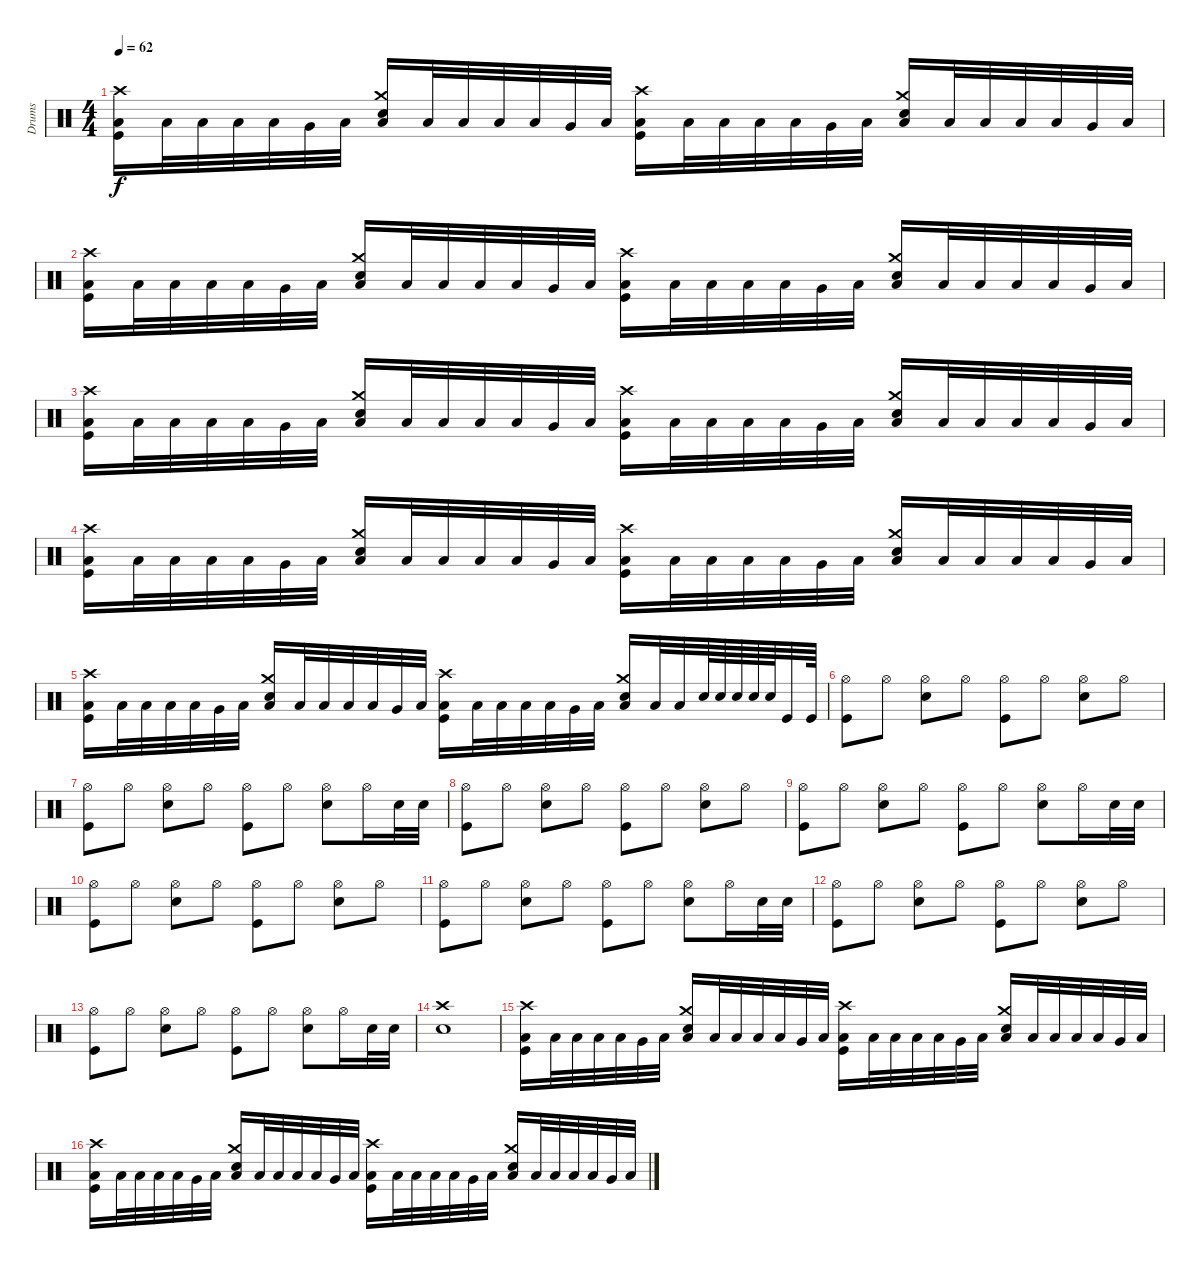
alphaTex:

\track ("Drums" "Drums") {instrument percussion}
\staff {score}
\articulation defaults
\ts (4 4)
\tempo 62
\clef neutral
\ks c
("Crash high (hit)" "Low Floor Tom (hit)" "Kick (hit)").16{dy f} "Low Floor Tom (hit)".32 "Low Floor Tom (hit)".32 "Low Tom (hit)".32 "Low Tom (hit)".32 "Very Low Tom (hit)".32 "Low Floor Tom (hit)".32 ("Crash medium (hit)" "Low Floor Tom (hit)" "Snare (hit) 2").16 "Low Floor Tom (hit)".32 "Low Floor Tom (hit)".32 "Low Tom (hit)".32 "Low Tom (hit)".32 "Very Low Tom (hit)".32 "Low Floor Tom (hit)".32 ("Crash high (hit)" "Low Floor Tom (hit)" "Kick (hit)").16 "Low Floor Tom (hit)".32 "Low Floor Tom (hit)".32 "Low Tom (hit)".32 "Low Tom (hit)".32 "Very Low Tom (hit)".32 "Low Floor Tom (hit)".32 ("Crash medium (hit)" "Low Floor Tom (hit)" "Snare (hit) 2").16 "Low Floor Tom (hit)".32 "Low Floor Tom (hit)".32 "Low Tom (hit)".32 "Low Tom (hit)".32 "Very Low Tom (hit)".32 "Low Floor Tom (hit)".32 |
("Crash high (hit)" "Low Floor Tom (hit)" "Kick (hit)").16 "Low Floor Tom (hit)".32 "Low Floor Tom (hit)".32 "Low Tom (hit)".32 "Low Tom (hit)".32 "Very Low Tom (hit)".32 "Low Floor Tom (hit)".32 ("Crash medium (hit)" "Low Floor Tom (hit)" "Snare (hit) 2").16 "Low Floor Tom (hit)".32 "Low Floor Tom (hit)".32 "Low Tom (hit)".32 "Low Tom (hit)".32 "Very Low Tom (hit)".32 "Low Floor Tom (hit)".32 ("Crash high (hit)" "Low Floor Tom (hit)" "Kick (hit)").16 "Low Floor Tom (hit)".32 "Low Floor Tom (hit)".32 "Low Tom (hit)".32 "Low Tom (hit)".32 "Very Low Tom (hit)".32 "Low Floor Tom (hit)".32 ("Crash medium (hit)" "Low Floor Tom (hit)" "Snare (hit) 2").16 "Low Floor Tom (hit)".32 "Low Floor Tom (hit)".32 "Low Tom (hit)".32 "Low Tom (hit)".32 "Very Low Tom (hit)".32 "Low Floor Tom (hit)".32 |
("Crash high (hit)" "Low Floor Tom (hit)" "Kick (hit)").16 "Low Floor Tom (hit)".32 "Low Floor Tom (hit)".32 "Low Tom (hit)".32 "Low Tom (hit)".32 "Very Low Tom (hit)".32 "Low Floor Tom (hit)".32 ("Crash medium (hit)" "Low Floor Tom (hit)" "Snare (hit) 2").16 "Low Floor Tom (hit)".32 "Low Floor Tom (hit)".32 "Low Tom (hit)".32 "Low Tom (hit)".32 "Very Low Tom (hit)".32 "Low Floor Tom (hit)".32 ("Crash high (hit)" "Low Floor Tom (hit)" "Kick (hit)").16 "Low Floor Tom (hit)".32 "Low Floor Tom (hit)".32 "Low Tom (hit)".32 "Low Tom (hit)".32 "Very Low Tom (hit)".32 "Low Floor Tom (hit)".32 ("Crash medium (hit)" "Low Floor Tom (hit)" "Snare (hit) 2").16 "Low Floor Tom (hit)".32 "Low Floor Tom (hit)".32 "Low Tom (hit)".32 "Low Tom (hit)".32 "Very Low Tom (hit)".32 "Low Floor Tom (hit)".32 |
("Crash high (hit)" "Low Floor Tom (hit)" "Kick (hit)").16 "Low Floor Tom (hit)".32 "Low Floor Tom (hit)".32 "Low Tom (hit)".32 "Low Tom (hit)".32 "Very Low Tom (hit)".32 "Low Floor Tom (hit)".32 ("Crash medium (hit)" "Low Floor Tom (hit)" "Snare (hit) 2").16 "Low Floor Tom (hit)".32 "Low Floor Tom (hit)".32 "Low Tom (hit)".32 "Low Tom (hit)".32 "Very Low Tom (hit)".32 "Low Floor Tom (hit)".32 ("Crash high (hit)" "Low Floor Tom (hit)" "Kick (hit)").16 "Low Floor Tom (hit)".32 "Low Floor Tom (hit)".32 "Low Tom (hit)".32 "Low Tom (hit)".32 "Very Low Tom (hit)".32 "Low Floor Tom (hit)".32 ("Crash medium (hit)" "Low Floor Tom (hit)" "Snare (hit) 2").16 "Low Floor Tom (hit)".32 "Low Floor Tom (hit)".32 "Low Tom (hit)".32 "Low Tom (hit)".32 "Very Low Tom (hit)".32 "Low Floor Tom (hit)".32 |
("Crash high (hit)" "Low Floor Tom (hit)" "Kick (hit)").16 "Low Floor Tom (hit)".32 "Low Floor Tom (hit)".32 "Low Tom (hit)".32 "Low Tom (hit)".32 "Very Low Tom (hit)".32 "Low Floor Tom (hit)".32 ("Crash medium (hit)" "Low Floor Tom (hit)" "Snare (hit) 2").16 "Low Floor Tom (hit)".32 "Low Floor Tom (hit)".32 "Low Tom (hit)".32 "Low Tom (hit)".32 "Very Low Tom (hit)".32 "Low Floor Tom (hit)".32 ("Crash high (hit)" "Low Floor Tom (hit)" "Kick (hit)").16 "Low Floor Tom (hit)".32 "Low Floor Tom (hit)".32 "Low Tom (hit)".32 "Low Tom (hit)".32 "Very Low Tom (hit)".32 "Low Floor Tom (hit)".32 ("Crash medium (hit)" "Low Floor Tom (hit)" "Snare (hit) 2").16 "Low Floor Tom (hit)".32 "Low Tom (hit)".32 "Snare (hit) 2".64 "Snare (hit) 2".64 "Snare (hit) 2".64 "Snare (hit) 2".64 "Snare (hit) 2".64 "Kick (hit)".32 "Kick (hit)".64 |
("Hi-Hat (open)" "Kick (hit)").8 "Hi-Hat (open)".8 ("Hi-Hat (open)" "Snare (hit) 2").8 "Hi-Hat (open)".8 ("Hi-Hat (open)" "Kick (hit)").8 "Hi-Hat (open)".8 ("Hi-Hat (open)" "Snare (hit) 2").8 "Hi-Hat (open)".8 |
("Hi-Hat (open)" "Kick (hit)").8 "Hi-Hat (open)".8 ("Hi-Hat (open)" "Snare (hit) 2").8 "Hi-Hat (open)".8 ("Hi-Hat (open)" "Kick (hit)").8 "Hi-Hat (open)".8 ("Hi-Hat (open)" "Snare (hit) 2").8 "Hi-Hat (open)".16 "Snare (hit) 2".32 "Snare (hit) 2".32 |
("Hi-Hat (open)" "Kick (hit)").8 "Hi-Hat (open)".8 ("Hi-Hat (open)" "Snare (hit) 2").8 "Hi-Hat (open)".8 ("Hi-Hat (open)" "Kick (hit)").8 "Hi-Hat (open)".8 ("Hi-Hat (open)" "Snare (hit) 2").8 "Hi-Hat (open)".8 |
("Hi-Hat (open)" "Kick (hit)").8 "Hi-Hat (open)".8 ("Hi-Hat (open)" "Snare (hit) 2").8 "Hi-Hat (open)".8 ("Hi-Hat (open)" "Kick (hit)").8 "Hi-Hat (open)".8 ("Hi-Hat (open)" "Snare (hit) 2").8 "Hi-Hat (open)".16 "Snare (hit) 2".32 "Snare (hit) 2".32 |
("Hi-Hat (open)" "Kick (hit)").8 "Hi-Hat (open)".8 ("Hi-Hat (open)" "Snare (hit) 2").8 "Hi-Hat (open)".8 ("Hi-Hat (open)" "Kick (hit)").8 "Hi-Hat (open)".8 ("Hi-Hat (open)" "Snare (hit) 2").8 "Hi-Hat (open)".8 |
("Hi-Hat (open)" "Kick (hit)").8 "Hi-Hat (open)".8 ("Hi-Hat (open)" "Snare (hit) 2").8 "Hi-Hat (open)".8 ("Hi-Hat (open)" "Kick (hit)").8 "Hi-Hat (open)".8 ("Hi-Hat (open)" "Snare (hit) 2").8 "Hi-Hat (open)".16 "Snare (hit) 2".32 "Snare (hit) 2".32 |
("Hi-Hat (open)" "Kick (hit)").8 "Hi-Hat (open)".8 ("Hi-Hat (open)" "Snare (hit) 2").8 "Hi-Hat (open)".8 ("Hi-Hat (open)" "Kick (hit)").8 "Hi-Hat (open)".8 ("Hi-Hat (open)" "Snare (hit) 2").8 "Hi-Hat (open)".8 |
("Hi-Hat (open)" "Kick (hit)").8 "Hi-Hat (open)".8 ("Hi-Hat (open)" "Snare (hit) 2").8 "Hi-Hat (open)".8 ("Hi-Hat (open)" "Kick (hit)").8 "Hi-Hat (open)".8 ("Hi-Hat (open)" "Snare (hit) 2").8 "Hi-Hat (open)".16 "Snare (hit) 2".32 "Snare (hit) 2".32 |
("Crash high (hit)" "Snare (hit) 2").1 |
("Crash high (hit)" "Low Floor Tom (hit)" "Kick (hit)").16 "Low Floor Tom (hit)".32 "Low Floor Tom (hit)".32 "Low Tom (hit)".32 "Low Tom (hit)".32 "Very Low Tom (hit)".32 "Low Floor Tom (hit)".32 ("Crash medium (hit)" "Low Floor Tom (hit)" "Snare (hit) 2").16 "Low Floor Tom (hit)".32 "Low Floor Tom (hit)".32 "Low Tom (hit)".32 "Low Tom (hit)".32 "Very Low Tom (hit)".32 "Low Floor Tom (hit)".32 ("Crash high (hit)" "Low Floor Tom (hit)" "Kick (hit)").16 "Low Floor Tom (hit)".32 "Low Floor Tom (hit)".32 "Low Tom (hit)".32 "Low Tom (hit)".32 "Very Low Tom (hit)".32 "Low Floor Tom (hit)".32 ("Crash medium (hit)" "Low Floor Tom (hit)" "Snare (hit) 2").16 "Low Floor Tom (hit)".32 "Low Floor Tom (hit)".32 "Low Tom (hit)".32 "Low Tom (hit)".32 "Very Low Tom (hit)".32 "Low Floor Tom (hit)".32 |
("Crash high (hit)" "Low Floor Tom (hit)" "Kick (hit)").16 "Low Floor Tom (hit)".32 "Low Floor Tom (hit)".32 "Low Tom (hit)".32 "Low Tom (hit)".32 "Very Low Tom (hit)".32 "Low Floor Tom (hit)".32 ("Crash medium (hit)" "Low Floor Tom (hit)" "Snare (hit) 2").16 "Low Floor Tom (hit)".32 "Low Floor Tom (hit)".32 "Low Tom (hit)".32 "Low Tom (hit)".32 "Very Low Tom (hit)".32 "Low Floor Tom (hit)".32 ("Crash high (hit)" "Low Floor Tom (hit)" "Kick (hit)").16 "Low Floor Tom (hit)".32 "Low Floor Tom (hit)".32 "Low Tom (hit)".32 "Low Tom (hit)".32 "Very Low Tom (hit)".32 "Low Floor Tom (hit)".32 ("Crash medium (hit)" "Low Floor Tom (hit)" "Snare (hit) 2").16 "Low Floor Tom (hit)".32 "Low Floor Tom (hit)".32 "Low Tom (hit)".32 "Low Tom (hit)".32 "Very Low Tom (hit)".32 "Low Floor Tom (hit)".32
